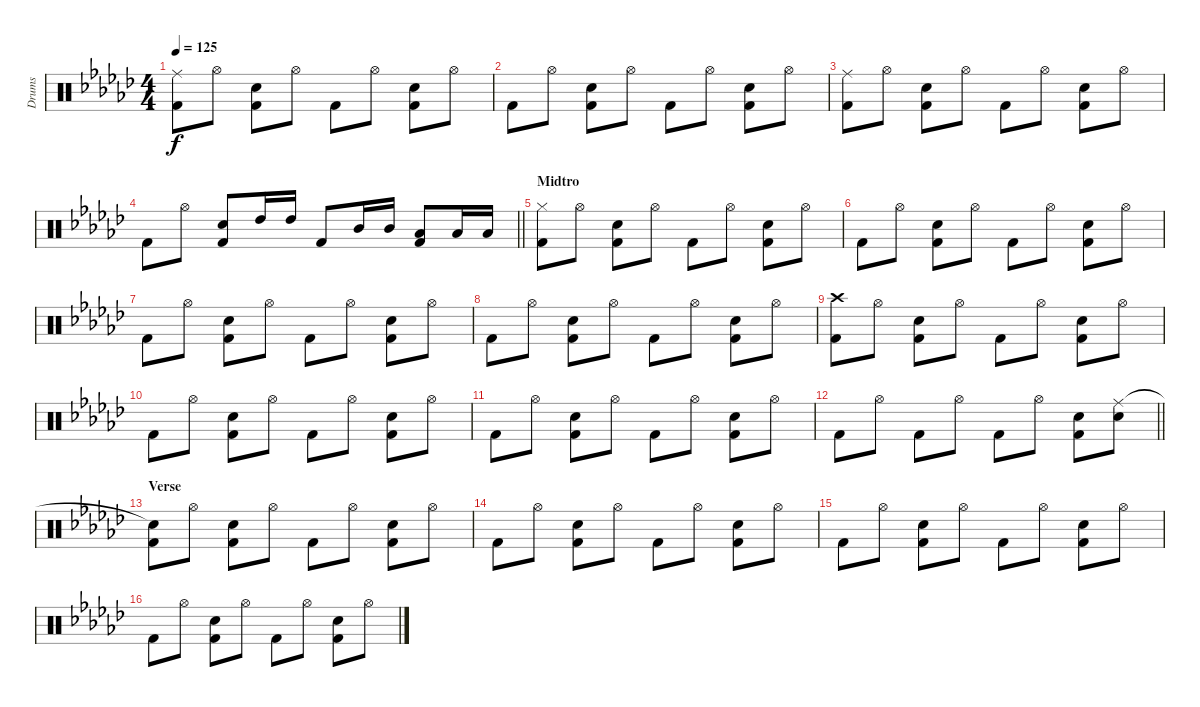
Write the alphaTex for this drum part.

\track ("Drums" "Drums") {instrument percussion}
\staff {score}
\articulation defaults
\ts (4 4)
\tempo 125
\clef neutral
\ks gb
("Ride (middle)" "Kick (hit) 2").8{dy f} "Hi-Hat (open)".8 ("Snare (hit) 2" "Kick (hit) 2").8 "Hi-Hat (open)".8 "Kick (hit) 2".8 "Hi-Hat (open)".8 ("Snare (hit) 2" "Kick (hit) 2").8 "Hi-Hat (open)".8 |
"Kick (hit) 2".8 "Hi-Hat (open)".8 ("Snare (hit) 2" "Kick (hit) 2").8 "Hi-Hat (open)".8 "Kick (hit) 2".8 "Hi-Hat (open)".8 ("Snare (hit) 2" "Kick (hit) 2").8 "Hi-Hat (open)".8 |
("Ride (middle)" "Kick (hit) 2").8 "Hi-Hat (open)".8 ("Snare (hit) 2" "Kick (hit) 2").8 "Hi-Hat (open)".8 "Kick (hit) 2".8 "Hi-Hat (open)".8 ("Snare (hit) 2" "Kick (hit) 2").8 "Hi-Hat (open)".8 |
\barLineRight lightlight "Kick (hit) 2".8 "Hi-Hat (open)".8
("Snare (hit) 2" "Kick (hit) 2").8 "High Tom (hit)".16 "High Tom (hit)".16 "Kick (hit) 2".8 "Mid Tom (hit)".16 "Mid Tom (hit)".16 ("Low Tom (hit)" "Kick (hit) 2").8 "Low Tom (hit)".16 "Low Tom (hit)".16 |
\section ("" "Midtro")
("Hi-Hat (closed)" "Kick (hit) 2").8 "Hi-Hat (open)".8 ("Snare (hit) 2" "Kick (hit) 2").8 "Hi-Hat (open)".8 "Kick (hit) 2".8 "Hi-Hat (open)".8 ("Snare (hit) 2" "Kick (hit) 2").8 "Hi-Hat (open)".8 |
"Kick (hit) 2".8 "Hi-Hat (open)".8 ("Snare (hit) 2" "Kick (hit) 2").8 "Hi-Hat (open)".8 "Kick (hit) 2".8 "Hi-Hat (open)".8 ("Snare (hit) 2" "Kick (hit) 2").8 "Hi-Hat (open)".8 |
"Kick (hit) 2".8 "Hi-Hat (open)".8 ("Snare (hit) 2" "Kick (hit) 2").8 "Hi-Hat (open)".8 "Kick (hit) 2".8 "Hi-Hat (open)".8 ("Snare (hit) 2" "Kick (hit) 2").8 "Hi-Hat (open)".8 |
"Kick (hit) 2".8 "Hi-Hat (open)".8 ("Snare (hit) 2" "Kick (hit) 2").8 "Hi-Hat (open)".8 "Kick (hit) 2".8 "Hi-Hat (open)".8 ("Snare (hit) 2" "Kick (hit) 2").8 "Hi-Hat (open)".8 |
("Crash high (hit)" "Kick (hit) 2").8 "Hi-Hat (open)".8 ("Snare (hit) 2" "Kick (hit) 2").8 "Hi-Hat (open)".8 "Kick (hit) 2".8 "Hi-Hat (open)".8 ("Snare (hit) 2" "Kick (hit) 2").8 "Hi-Hat (open)".8 |
"Kick (hit) 2".8 "Hi-Hat (open)".8 ("Snare (hit) 2" "Kick (hit) 2").8 "Hi-Hat (open)".8 "Kick (hit) 2".8 "Hi-Hat (open)".8 ("Snare (hit) 2" "Kick (hit) 2").8 "Hi-Hat (open)".8 |
"Kick (hit) 2".8 "Hi-Hat (open)".8 ("Snare (hit) 2" "Kick (hit) 2").8 "Hi-Hat (open)".8 "Kick (hit) 2".8 "Hi-Hat (open)".8 ("Snare (hit) 2" "Kick (hit) 2").8 "Hi-Hat (open)".8 |
\barLineRight lightlight "Kick (hit) 2".8 "Hi-Hat (open)".8 "Kick (hit) 2".8 "Hi-Hat (open)".8 "Kick (hit) 2".8 "Hi-Hat (open)".8
("Snare (hit) 2" "Kick (hit) 2").8 ("Ride (middle)" "Snare (hit) 2").8 |
\section ("" "Verse")
("Snare (hit)"{t} "Kick (hit) 2").8 "Hi-Hat (open)".8 ("Snare (hit) 2" "Kick (hit) 2").8 "Hi-Hat (open)".8 "Kick (hit) 2".8 "Hi-Hat (open)".8 ("Snare (hit) 2" "Kick (hit) 2").8 "Hi-Hat (open)".8 |
"Kick (hit) 2".8 "Hi-Hat (open)".8 ("Snare (hit) 2" "Kick (hit) 2").8 "Hi-Hat (open)".8 "Kick (hit) 2".8 "Hi-Hat (open)".8 ("Snare (hit) 2" "Kick (hit) 2").8 "Hi-Hat (open)".8 |
"Kick (hit) 2".8 "Hi-Hat (open)".8 ("Snare (hit) 2" "Kick (hit) 2").8 "Hi-Hat (open)".8 "Kick (hit) 2".8 "Hi-Hat (open)".8 ("Snare (hit) 2" "Kick (hit) 2").8 "Hi-Hat (open)".8 |
"Kick (hit) 2".8 "Hi-Hat (open)".8 ("Snare (hit) 2" "Kick (hit) 2").8 "Hi-Hat (open)".8 "Kick (hit) 2".8 "Hi-Hat (open)".8 ("Snare (hit) 2" "Kick (hit) 2").8 "Hi-Hat (open)".8
